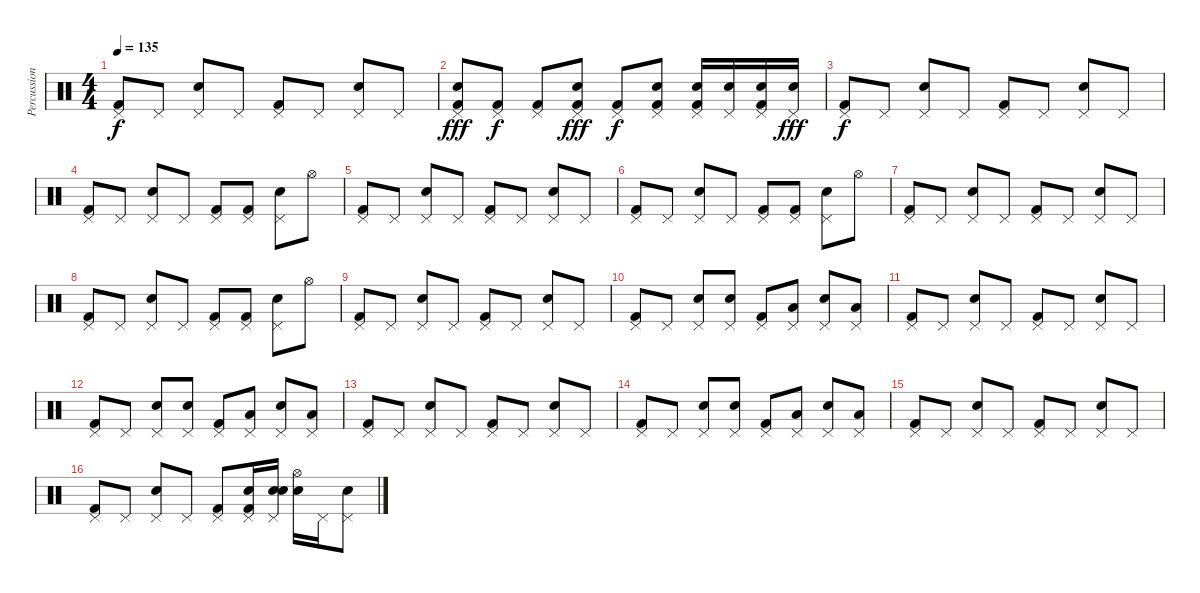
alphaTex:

\track ("Percussion" "Percussion") {instrument percussion}
\staff {score}
\articulation defaults
\ts (4 4)
\tempo 135
\clef neutral
\ks c
("Pedal Hi-Hat (hit)" "Kick (hit) 2").8{dy f} "Pedal Hi-Hat (hit)".8 ("Pedal Hi-Hat (hit)" "Electric Snare (hit)").8 "Pedal Hi-Hat (hit)".8 ("Pedal Hi-Hat (hit)" "Kick (hit) 2").8 "Pedal Hi-Hat (hit)".8 ("Pedal Hi-Hat (hit)" "Electric Snare (hit)").8 "Pedal Hi-Hat (hit)".8 |
("Pedal Hi-Hat (hit)" "Kick (hit) 2" "Electric Snare (hit)").8{dy fff} ("Pedal Hi-Hat (hit)" "Kick (hit) 2").8{dy f} ("Pedal Hi-Hat (hit)" "Kick (hit) 2").8 ("Pedal Hi-Hat (hit)" "Kick (hit) 2" "Electric Snare (hit)").8{dy fff} ("Pedal Hi-Hat (hit)" "Kick (hit) 2").8{dy f} ("Pedal Hi-Hat (hit)" "Kick (hit) 2" "Electric Snare (hit)").8 ("Pedal Hi-Hat (hit)" "Kick (hit) 2" "Electric Snare (hit)").16 ("Pedal Hi-Hat (hit)" "Electric Snare (hit)").16 ("Pedal Hi-Hat (hit)" "Kick (hit) 2" "Electric Snare (hit)").16 ("Pedal Hi-Hat (hit)" "Electric Snare (hit)").16{dy fff} |
("Pedal Hi-Hat (hit)" "Kick (hit) 2").8{dy f} "Pedal Hi-Hat (hit)".8 ("Pedal Hi-Hat (hit)" "Electric Snare (hit)").8 "Pedal Hi-Hat (hit)".8 ("Pedal Hi-Hat (hit)" "Kick (hit) 2").8 "Pedal Hi-Hat (hit)".8 ("Pedal Hi-Hat (hit)" "Electric Snare (hit)").8 "Pedal Hi-Hat (hit)".8 |
("Pedal Hi-Hat (hit)" "Kick (hit) 2").8 "Pedal Hi-Hat (hit)".8 ("Pedal Hi-Hat (hit)" "Electric Snare (hit)").8 "Pedal Hi-Hat (hit)".8 ("Pedal Hi-Hat (hit)" "Kick (hit) 2").8 ("Pedal Hi-Hat (hit)" "Kick (hit) 2").8 ("Pedal Hi-Hat (hit)" "Electric Snare (hit)").8 "Hi-Hat (open)".8 |
("Pedal Hi-Hat (hit)" "Kick (hit) 2").8 "Pedal Hi-Hat (hit)".8 ("Pedal Hi-Hat (hit)" "Electric Snare (hit)").8 "Pedal Hi-Hat (hit)".8 ("Pedal Hi-Hat (hit)" "Kick (hit) 2").8 "Pedal Hi-Hat (hit)".8 ("Pedal Hi-Hat (hit)" "Electric Snare (hit)").8 "Pedal Hi-Hat (hit)".8 |
("Pedal Hi-Hat (hit)" "Kick (hit) 2").8 "Pedal Hi-Hat (hit)".8 ("Pedal Hi-Hat (hit)" "Electric Snare (hit)").8 "Pedal Hi-Hat (hit)".8 ("Pedal Hi-Hat (hit)" "Kick (hit) 2").8 ("Pedal Hi-Hat (hit)" "Kick (hit) 2").8 ("Pedal Hi-Hat (hit)" "Electric Snare (hit)").8 "Hi-Hat (open)".8 |
("Pedal Hi-Hat (hit)" "Kick (hit) 2").8 "Pedal Hi-Hat (hit)".8 ("Pedal Hi-Hat (hit)" "Electric Snare (hit)").8 "Pedal Hi-Hat (hit)".8 ("Pedal Hi-Hat (hit)" "Kick (hit) 2").8 "Pedal Hi-Hat (hit)".8 ("Pedal Hi-Hat (hit)" "Electric Snare (hit)").8 "Pedal Hi-Hat (hit)".8 |
("Pedal Hi-Hat (hit)" "Kick (hit) 2").8 "Pedal Hi-Hat (hit)".8 ("Pedal Hi-Hat (hit)" "Electric Snare (hit)").8 "Pedal Hi-Hat (hit)".8 ("Pedal Hi-Hat (hit)" "Kick (hit) 2").8 ("Pedal Hi-Hat (hit)" "Kick (hit) 2").8 ("Pedal Hi-Hat (hit)" "Electric Snare (hit)").8 "Hi-Hat (open)".8 |
("Pedal Hi-Hat (hit)" "Kick (hit) 2").8 "Pedal Hi-Hat (hit)".8 ("Pedal Hi-Hat (hit)" "Electric Snare (hit)").8 "Pedal Hi-Hat (hit)".8 ("Pedal Hi-Hat (hit)" "Kick (hit) 2").8 "Pedal Hi-Hat (hit)".8 ("Pedal Hi-Hat (hit)" "Electric Snare (hit)").8 "Pedal Hi-Hat (hit)".8 |
("Pedal Hi-Hat (hit)" "Kick (hit) 2").8 "Pedal Hi-Hat (hit)".8 ("Pedal Hi-Hat (hit)" "Electric Snare (hit)").8 ("Pedal Hi-Hat (hit)" "Electric Snare (hit)").8 ("Pedal Hi-Hat (hit)" "Kick (hit) 2").8 ("Pedal Hi-Hat (hit)" "Low Floor Tom (hit)").8 ("Pedal Hi-Hat (hit)" "Electric Snare (hit)").8 ("Pedal Hi-Hat (hit)" "Low Floor Tom (hit)").8 |
("Pedal Hi-Hat (hit)" "Kick (hit) 2").8 "Pedal Hi-Hat (hit)".8 ("Pedal Hi-Hat (hit)" "Electric Snare (hit)").8 "Pedal Hi-Hat (hit)".8 ("Pedal Hi-Hat (hit)" "Kick (hit) 2").8 "Pedal Hi-Hat (hit)".8 ("Pedal Hi-Hat (hit)" "Electric Snare (hit)").8 "Pedal Hi-Hat (hit)".8 |
("Pedal Hi-Hat (hit)" "Kick (hit) 2").8 "Pedal Hi-Hat (hit)".8 ("Pedal Hi-Hat (hit)" "Electric Snare (hit)").8 ("Pedal Hi-Hat (hit)" "Electric Snare (hit)").8 ("Pedal Hi-Hat (hit)" "Kick (hit) 2").8 ("Pedal Hi-Hat (hit)" "Low Floor Tom (hit)").8 ("Pedal Hi-Hat (hit)" "Electric Snare (hit)").8 ("Pedal Hi-Hat (hit)" "Low Floor Tom (hit)").8 |
("Pedal Hi-Hat (hit)" "Kick (hit) 2").8 "Pedal Hi-Hat (hit)".8 ("Pedal Hi-Hat (hit)" "Electric Snare (hit)").8 "Pedal Hi-Hat (hit)".8 ("Pedal Hi-Hat (hit)" "Kick (hit) 2").8 "Pedal Hi-Hat (hit)".8 ("Pedal Hi-Hat (hit)" "Electric Snare (hit)").8 "Pedal Hi-Hat (hit)".8 |
("Pedal Hi-Hat (hit)" "Kick (hit) 2").8 "Pedal Hi-Hat (hit)".8 ("Pedal Hi-Hat (hit)" "Electric Snare (hit)").8 ("Pedal Hi-Hat (hit)" "Electric Snare (hit)").8 ("Pedal Hi-Hat (hit)" "Kick (hit) 2").8 ("Pedal Hi-Hat (hit)" "Low Floor Tom (hit)").8 ("Pedal Hi-Hat (hit)" "Electric Snare (hit)").8 ("Pedal Hi-Hat (hit)" "Low Floor Tom (hit)").8 |
("Pedal Hi-Hat (hit)" "Kick (hit) 2").8 "Pedal Hi-Hat (hit)".8 ("Pedal Hi-Hat (hit)" "Electric Snare (hit)").8 "Pedal Hi-Hat (hit)".8 ("Pedal Hi-Hat (hit)" "Kick (hit) 2").8 "Pedal Hi-Hat (hit)".8 ("Pedal Hi-Hat (hit)" "Electric Snare (hit)").8 "Pedal Hi-Hat (hit)".8 |
("Pedal Hi-Hat (hit)" "Kick (hit) 2").8 "Pedal Hi-Hat (hit)".8 ("Pedal Hi-Hat (hit)" "Electric Snare (hit)").8 "Pedal Hi-Hat (hit)".8 ("Pedal Hi-Hat (hit)" "Kick (hit) 2").8 ("Pedal Hi-Hat (hit)" "Electric Snare (hit)" "Kick (hit) 2").16 ("Pedal Hi-Hat (hit)" "Electric Snare (hit)" "Electric Snare (hit)").16 ("Hi-Hat (open)" "Electric Snare (hit)").16 "Pedal Hi-Hat (hit)".16 ("Pedal Hi-Hat (hit)" "Electric Snare (hit)").8
